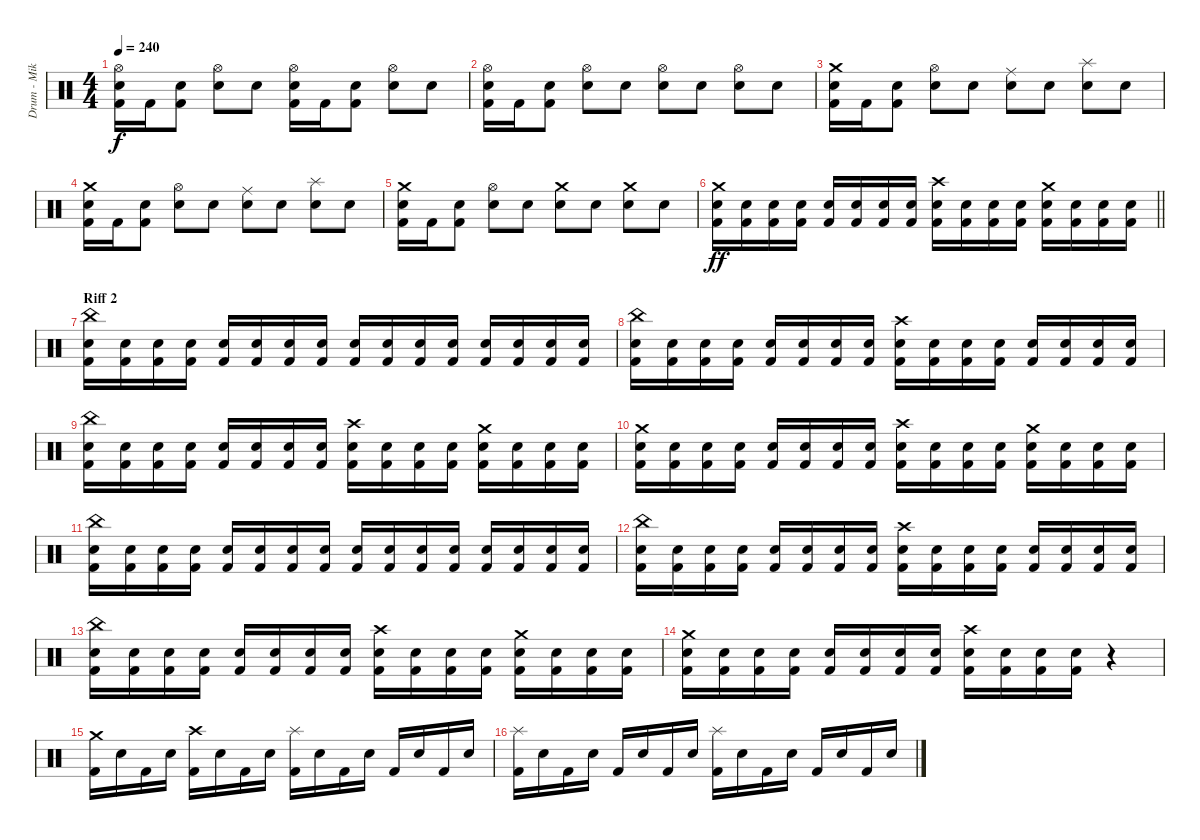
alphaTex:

\track ("Drum - Mike Collins" "Drum - Mik") {instrument percussion}
\staff {score}
\articulation defaults
\ts (4 4)
\tempo 240
\clef neutral
\ks c
("Hi-Hat (open)" "Electric Snare (hit)" "Kick (hit) 2").16{dy f} "Kick (hit) 2".16 ("Electric Snare (hit)" "Kick (hit) 2").8 ("Hi-Hat (open)" "Electric Snare (hit)").8 "Electric Snare (hit)".8 ("Hi-Hat (open)" "Electric Snare (hit)" "Kick (hit) 2").16 "Kick (hit) 2".16 ("Electric Snare (hit)" "Kick (hit) 2").8 ("Hi-Hat (open)" "Electric Snare (hit)").8 "Electric Snare (hit)".8 |
("Hi-Hat (open)" "Electric Snare (hit)" "Kick (hit) 2").16 "Kick (hit) 2".16 ("Electric Snare (hit)" "Kick (hit) 2").8 ("Hi-Hat (open)" "Electric Snare (hit)").8 "Electric Snare (hit)".8 ("Hi-Hat (open)" "Electric Snare (hit)").8 "Electric Snare (hit)".8 ("Hi-Hat (open)" "Electric Snare (hit)").8 "Electric Snare (hit)".8 |
("Crash medium (hit)" "Electric Snare (hit)" "Kick (hit) 2").16 "Kick (hit) 2".16 ("Electric Snare (hit)" "Kick (hit) 2").8 ("Hi-Hat (open)" "Electric Snare (hit)").8 "Electric Snare (hit)".8 ("Ride (middle)" "Electric Snare (hit)").8 "Electric Snare (hit)".8 ("Splash (hit)" "Electric Snare (hit)").8 "Electric Snare (hit)".8 |
("Crash medium (hit)" "Electric Snare (hit)" "Kick (hit) 2").16 "Kick (hit) 2".16 ("Electric Snare (hit)" "Kick (hit) 2").8 ("Hi-Hat (open)" "Electric Snare (hit)").8 "Electric Snare (hit)".8 ("Ride (middle)" "Electric Snare (hit)").8 "Electric Snare (hit)".8 ("Splash (hit)" "Electric Snare (hit)").8 "Electric Snare (hit)".8 |
("Crash medium (hit)" "Electric Snare (hit)" "Kick (hit) 2").16 "Kick (hit) 2".16 ("Electric Snare (hit)" "Kick (hit) 2").8 ("Hi-Hat (open)" "Electric Snare (hit)").8 "Electric Snare (hit)".8 ("Crash medium (hit)" "Electric Snare (hit)").8 "Electric Snare (hit)".8 ("Crash medium (hit)" "Electric Snare (hit)").8 "Electric Snare (hit)".8 |
\barLineRight lightlight
("Crash medium (hit)" "Electric Snare (hit)" "Kick (hit) 2").16{dy ff} ("Electric Snare (hit)" "Kick (hit) 2").16 ("Electric Snare (hit)" "Kick (hit) 2").16 ("Electric Snare (hit)" "Kick (hit) 2").16 ("Electric Snare (hit)" "Kick (hit) 2").16 ("Electric Snare (hit)" "Kick (hit) 2").16 ("Electric Snare (hit)" "Kick (hit) 2").16 ("Electric Snare (hit)" "Kick (hit) 2").16 ("Crash high (hit)" "Electric Snare (hit)" "Kick (hit) 2").16 ("Electric Snare (hit)" "Kick (hit) 2").16 ("Electric Snare (hit)" "Kick (hit) 2").16 ("Electric Snare (hit)" "Kick (hit) 2").16 ("Crash medium (hit)" "Electric Snare (hit)" "Kick (hit) 2").16 ("Electric Snare (hit)" "Kick (hit) 2").16 ("Electric Snare (hit)" "Kick (hit) 2").16 ("Electric Snare (hit)" "Kick (hit) 2").16 |
\section ("" "Riff 2")
("China (hit)" "Electric Snare (hit)" "Kick (hit) 2").16 ("Electric Snare (hit)" "Kick (hit) 2").16 ("Electric Snare (hit)" "Kick (hit) 2").16 ("Electric Snare (hit)" "Kick (hit) 2").16 ("Electric Snare (hit)" "Kick (hit) 2").16 ("Electric Snare (hit)" "Kick (hit) 2").16 ("Electric Snare (hit)" "Kick (hit) 2").16 ("Electric Snare (hit)" "Kick (hit) 2").16 ("Electric Snare (hit)" "Kick (hit) 2").16 ("Electric Snare (hit)" "Kick (hit) 2").16 ("Electric Snare (hit)" "Kick (hit) 2").16 ("Electric Snare (hit)" "Kick (hit) 2").16 ("Electric Snare (hit)" "Kick (hit) 2").16 ("Electric Snare (hit)" "Kick (hit) 2").16 ("Electric Snare (hit)" "Kick (hit) 2").16 ("Electric Snare (hit)" "Kick (hit) 2").16 |
("China (hit)" "Electric Snare (hit)" "Kick (hit) 2").16 ("Electric Snare (hit)" "Kick (hit) 2").16 ("Electric Snare (hit)" "Kick (hit) 2").16 ("Electric Snare (hit)" "Kick (hit) 2").16 ("Electric Snare (hit)" "Kick (hit) 2").16 ("Electric Snare (hit)" "Kick (hit) 2").16 ("Electric Snare (hit)" "Kick (hit) 2").16 ("Electric Snare (hit)" "Kick (hit) 2").16 ("Crash high (hit)" "Electric Snare (hit)" "Kick (hit) 2").16 ("Electric Snare (hit)" "Kick (hit) 2").16 ("Electric Snare (hit)" "Kick (hit) 2").16 ("Electric Snare (hit)" "Kick (hit) 2").16 ("Electric Snare (hit)" "Kick (hit) 2").16 ("Electric Snare (hit)" "Kick (hit) 2").16 ("Electric Snare (hit)" "Kick (hit) 2").16 ("Electric Snare (hit)" "Kick (hit) 2").16 |
("China (hit)" "Electric Snare (hit)" "Kick (hit) 2").16 ("Electric Snare (hit)" "Kick (hit) 2").16 ("Electric Snare (hit)" "Kick (hit) 2").16 ("Electric Snare (hit)" "Kick (hit) 2").16 ("Electric Snare (hit)" "Kick (hit) 2").16 ("Electric Snare (hit)" "Kick (hit) 2").16 ("Electric Snare (hit)" "Kick (hit) 2").16 ("Electric Snare (hit)" "Kick (hit) 2").16 ("Crash high (hit)" "Electric Snare (hit)" "Kick (hit) 2").16 ("Electric Snare (hit)" "Kick (hit) 2").16 ("Electric Snare (hit)" "Kick (hit) 2").16 ("Electric Snare (hit)" "Kick (hit) 2").16 ("Crash medium (hit)" "Electric Snare (hit)" "Kick (hit) 2").16 ("Electric Snare (hit)" "Kick (hit) 2").16 ("Electric Snare (hit)" "Kick (hit) 2").16 ("Electric Snare (hit)" "Kick (hit) 2").16 |
("Crash medium (hit)" "Electric Snare (hit)" "Kick (hit) 2").16 ("Electric Snare (hit)" "Kick (hit) 2").16 ("Electric Snare (hit)" "Kick (hit) 2").16 ("Electric Snare (hit)" "Kick (hit) 2").16 ("Electric Snare (hit)" "Kick (hit) 2").16 ("Electric Snare (hit)" "Kick (hit) 2").16 ("Electric Snare (hit)" "Kick (hit) 2").16 ("Electric Snare (hit)" "Kick (hit) 2").16 ("Crash high (hit)" "Electric Snare (hit)" "Kick (hit) 2").16 ("Electric Snare (hit)" "Kick (hit) 2").16 ("Electric Snare (hit)" "Kick (hit) 2").16 ("Electric Snare (hit)" "Kick (hit) 2").16 ("Crash medium (hit)" "Electric Snare (hit)" "Kick (hit) 2").16 ("Electric Snare (hit)" "Kick (hit) 2").16 ("Electric Snare (hit)" "Kick (hit) 2").16 ("Electric Snare (hit)" "Kick (hit) 2").16 |
("China (hit)" "Electric Snare (hit)" "Kick (hit) 2").16 ("Electric Snare (hit)" "Kick (hit) 2").16 ("Electric Snare (hit)" "Kick (hit) 2").16 ("Electric Snare (hit)" "Kick (hit) 2").16 ("Electric Snare (hit)" "Kick (hit) 2").16 ("Electric Snare (hit)" "Kick (hit) 2").16 ("Electric Snare (hit)" "Kick (hit) 2").16 ("Electric Snare (hit)" "Kick (hit) 2").16 ("Electric Snare (hit)" "Kick (hit) 2").16 ("Electric Snare (hit)" "Kick (hit) 2").16 ("Electric Snare (hit)" "Kick (hit) 2").16 ("Electric Snare (hit)" "Kick (hit) 2").16 ("Electric Snare (hit)" "Kick (hit) 2").16 ("Electric Snare (hit)" "Kick (hit) 2").16 ("Electric Snare (hit)" "Kick (hit) 2").16 ("Electric Snare (hit)" "Kick (hit) 2").16 |
("China (hit)" "Electric Snare (hit)" "Kick (hit) 2").16 ("Electric Snare (hit)" "Kick (hit) 2").16 ("Electric Snare (hit)" "Kick (hit) 2").16 ("Electric Snare (hit)" "Kick (hit) 2").16 ("Electric Snare (hit)" "Kick (hit) 2").16 ("Electric Snare (hit)" "Kick (hit) 2").16 ("Electric Snare (hit)" "Kick (hit) 2").16 ("Electric Snare (hit)" "Kick (hit) 2").16 ("Crash high (hit)" "Electric Snare (hit)" "Kick (hit) 2").16 ("Electric Snare (hit)" "Kick (hit) 2").16 ("Electric Snare (hit)" "Kick (hit) 2").16 ("Electric Snare (hit)" "Kick (hit) 2").16 ("Electric Snare (hit)" "Kick (hit) 2").16 ("Electric Snare (hit)" "Kick (hit) 2").16 ("Electric Snare (hit)" "Kick (hit) 2").16 ("Electric Snare (hit)" "Kick (hit) 2").16 |
("China (hit)" "Electric Snare (hit)" "Kick (hit) 2").16 ("Electric Snare (hit)" "Kick (hit) 2").16 ("Electric Snare (hit)" "Kick (hit) 2").16 ("Electric Snare (hit)" "Kick (hit) 2").16 ("Electric Snare (hit)" "Kick (hit) 2").16 ("Electric Snare (hit)" "Kick (hit) 2").16 ("Electric Snare (hit)" "Kick (hit) 2").16 ("Electric Snare (hit)" "Kick (hit) 2").16 ("Crash high (hit)" "Electric Snare (hit)" "Kick (hit) 2").16 ("Electric Snare (hit)" "Kick (hit) 2").16 ("Electric Snare (hit)" "Kick (hit) 2").16 ("Electric Snare (hit)" "Kick (hit) 2").16 ("Crash medium (hit)" "Electric Snare (hit)" "Kick (hit) 2").16 ("Electric Snare (hit)" "Kick (hit) 2").16 ("Electric Snare (hit)" "Kick (hit) 2").16 ("Electric Snare (hit)" "Kick (hit) 2").16 |
("Crash medium (hit)" "Electric Snare (hit)" "Kick (hit) 2").16 ("Electric Snare (hit)" "Kick (hit) 2").16 ("Electric Snare (hit)" "Kick (hit) 2").16 ("Electric Snare (hit)" "Kick (hit) 2").16 ("Electric Snare (hit)" "Kick (hit) 2").16 ("Electric Snare (hit)" "Kick (hit) 2").16 ("Electric Snare (hit)" "Kick (hit) 2").16 ("Electric Snare (hit)" "Kick (hit) 2").16 ("Crash high (hit)" "Electric Snare (hit)" "Kick (hit) 2").16 ("Electric Snare (hit)" "Kick (hit) 2").16 ("Electric Snare (hit)" "Kick (hit) 2").16 ("Electric Snare (hit)" "Kick (hit) 2").16 r.4 |
("Crash medium (hit)" "Kick (hit) 2").16 "Electric Snare (hit)".16 "Kick (hit) 2".16 "Electric Snare (hit)".16 ("Crash high (hit)" "Kick (hit) 2").16 "Electric Snare (hit)".16 "Kick (hit) 2".16 "Electric Snare (hit)".16 ("Splash (hit)" "Kick (hit) 2").16 "Electric Snare (hit)".16 "Kick (hit) 2".16 "Electric Snare (hit)".16 "Kick (hit) 2".16 "Electric Snare (hit)".16 "Kick (hit) 2".16 "Electric Snare (hit)".16 |
("Splash (hit)" "Kick (hit) 2").16 "Electric Snare (hit)".16 "Kick (hit) 2".16 "Electric Snare (hit)".16 "Kick (hit) 2".16 "Electric Snare (hit)".16 "Kick (hit) 2".16 "Electric Snare (hit)".16 ("Splash (hit)" "Kick (hit) 2").16 "Electric Snare (hit)".16 "Kick (hit) 2".16 "Electric Snare (hit)".16 "Kick (hit) 2".16 "Electric Snare (hit)".16 "Kick (hit) 2".16 "Electric Snare (hit)".16
